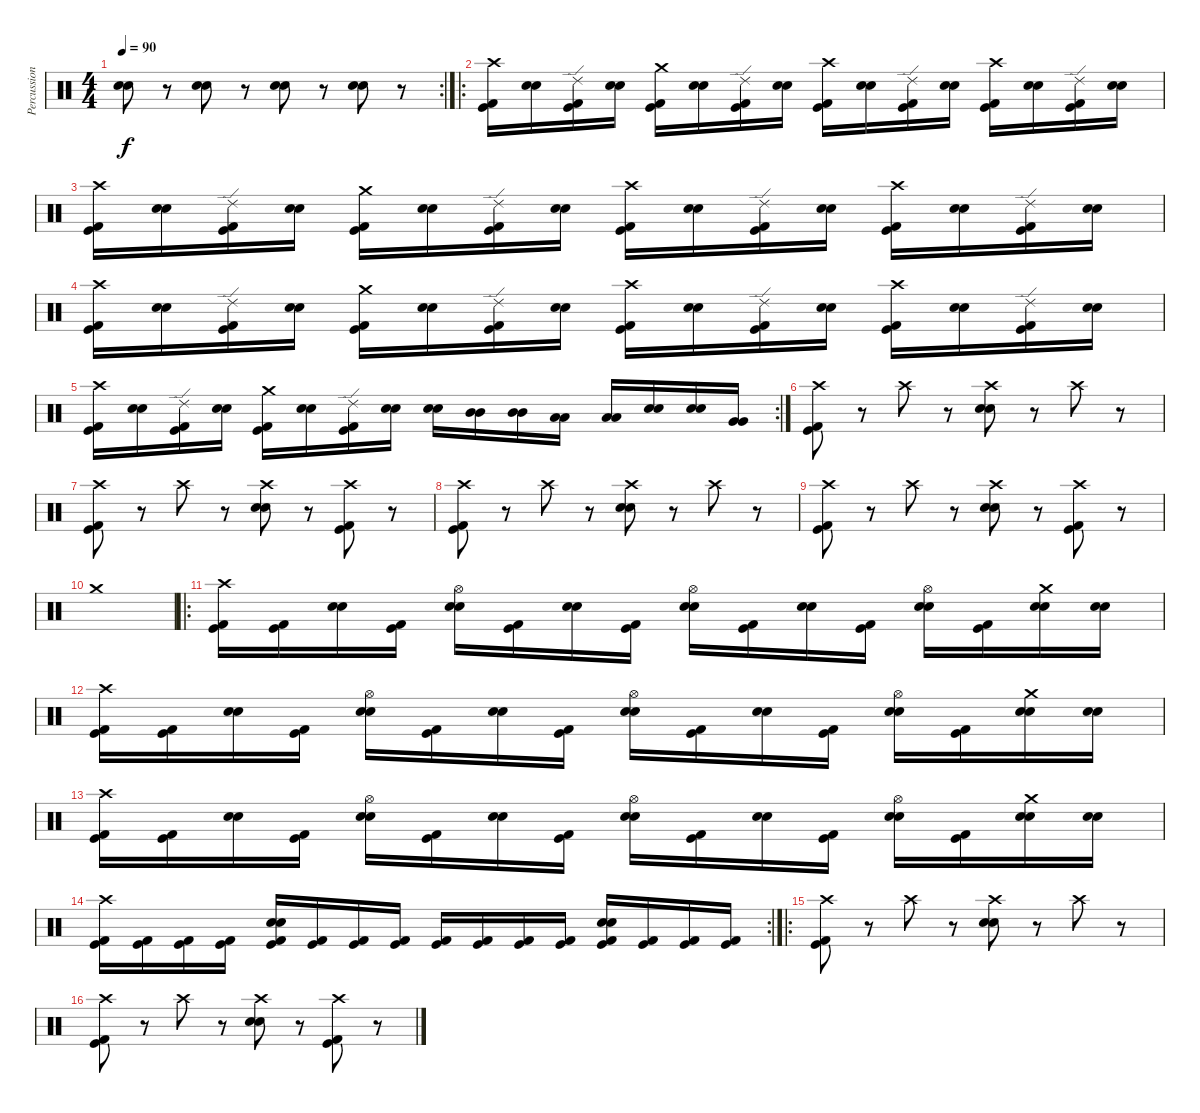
\track ("Percussion" "Percussion") {instrument percussion}
\staff {score}
\articulation defaults
\rc 2
\ts (4 4)
\tempo 90
\clef neutral
\ks c
("Electric Snare (hit)" "Snare (hit) 2").8{dy f} r.8 ("Electric Snare (hit)" "Snare (hit) 2").8 r.8 ("Electric Snare (hit)" "Snare (hit) 2").8 r.8 ("Electric Snare (hit)" "Snare (hit) 2").8 r.8 |
\ro
("Kick (hit) 2" "Kick (hit)" "Crash high (hit)").16 ("Electric Snare (hit)" "Snare (hit) 2").16 ("Kick (hit) 2" "Kick (hit)" "Ride (edge) 2").16 ("Electric Snare (hit)" "Snare (hit) 2").16 ("Kick (hit) 2" "Kick (hit)" "Crash medium (hit)").16 ("Electric Snare (hit)" "Snare (hit) 2").16 ("Kick (hit) 2" "Kick (hit)" "Ride (edge) 2").16 ("Electric Snare (hit)" "Snare (hit) 2").16 ("Kick (hit) 2" "Kick (hit)" "Crash high (hit)").16 ("Electric Snare (hit)" "Snare (hit) 2").16 ("Kick (hit) 2" "Kick (hit)" "Ride (edge) 2").16 ("Electric Snare (hit)" "Snare (hit) 2").16 ("Kick (hit) 2" "Kick (hit)" "Crash high (hit)").16 ("Electric Snare (hit)" "Snare (hit) 2").16 ("Kick (hit) 2" "Kick (hit)" "Ride (edge) 2").16 ("Electric Snare (hit)" "Snare (hit) 2").16 |
("Kick (hit) 2" "Kick (hit)" "Crash high (hit)").16 ("Electric Snare (hit)" "Snare (hit) 2").16 ("Kick (hit) 2" "Kick (hit)" "Ride (edge) 2").16 ("Electric Snare (hit)" "Snare (hit) 2").16 ("Kick (hit) 2" "Kick (hit)" "Crash medium (hit)").16 ("Electric Snare (hit)" "Snare (hit) 2").16 ("Kick (hit) 2" "Kick (hit)" "Ride (edge) 2").16 ("Electric Snare (hit)" "Snare (hit) 2").16 ("Kick (hit) 2" "Kick (hit)" "Crash high (hit)").16 ("Electric Snare (hit)" "Snare (hit) 2").16 ("Kick (hit) 2" "Kick (hit)" "Ride (edge) 2").16 ("Electric Snare (hit)" "Snare (hit) 2").16 ("Kick (hit) 2" "Kick (hit)" "Crash high (hit)").16 ("Electric Snare (hit)" "Snare (hit) 2").16 ("Kick (hit) 2" "Kick (hit)" "Ride (edge) 2").16 ("Electric Snare (hit)" "Snare (hit) 2").16 |
("Kick (hit) 2" "Kick (hit)" "Crash high (hit)").16 ("Electric Snare (hit)" "Snare (hit) 2").16 ("Kick (hit) 2" "Kick (hit)" "Ride (edge) 2").16 ("Electric Snare (hit)" "Snare (hit) 2").16 ("Kick (hit) 2" "Kick (hit)" "Crash medium (hit)").16 ("Electric Snare (hit)" "Snare (hit) 2").16 ("Kick (hit) 2" "Kick (hit)" "Ride (edge) 2").16 ("Electric Snare (hit)" "Snare (hit) 2").16 ("Kick (hit) 2" "Kick (hit)" "Crash high (hit)").16 ("Electric Snare (hit)" "Snare (hit) 2").16 ("Kick (hit) 2" "Kick (hit)" "Ride (edge) 2").16 ("Electric Snare (hit)" "Snare (hit) 2").16 ("Kick (hit) 2" "Kick (hit)" "Crash high (hit)").16 ("Electric Snare (hit)" "Snare (hit) 2").16 ("Kick (hit) 2" "Kick (hit)" "Ride (edge) 2").16 ("Electric Snare (hit)" "Snare (hit) 2").16 |
\rc 2
("Kick (hit) 2" "Kick (hit)" "Crash high (hit)").16 ("Electric Snare (hit)" "Snare (hit) 2").16 ("Kick (hit) 2" "Kick (hit)" "Ride (edge) 2").16 ("Electric Snare (hit)" "Snare (hit) 2").16 ("Kick (hit) 2" "Kick (hit)" "Crash medium (hit)").16 ("Electric Snare (hit)" "Snare (hit) 2").16 ("Kick (hit) 2" "Kick (hit)" "Ride (edge) 2").16 ("Electric Snare (hit)" "Snare (hit) 2").16 ("Electric Snare (hit)" "Snare (hit) 2").16 ("Mid Tom (hit)" "Mid Tom (hit)").16 ("Mid Tom (hit)" "Mid Tom (hit)").16 ("Low Tom (hit)" "Low Tom (hit)").16 ("Low Tom (hit)" "Low Tom (hit)").16 ("Electric Snare (hit)" "Snare (hit) 2").16 ("Electric Snare (hit)" "Snare (hit) 2").16 ("Very Low Tom (hit)" "Very Low Tom (hit)").16 |
("Kick (hit)" "Kick (hit) 2" "Crash high (hit)").8 r.8 "Crash high (hit)".8 r.8 ("Snare (hit) 2" "Electric Snare (hit)" "Crash high (hit)").8 r.8 "Crash high (hit)".8 r.8 |
("Kick (hit)" "Kick (hit) 2" "Crash high (hit)").8 r.8 "Crash high (hit)".8 r.8 ("Snare (hit) 2" "Electric Snare (hit)" "Crash high (hit)").8 r.8 ("Kick (hit) 2" "Kick (hit)" "Crash high (hit)").8 r.8 |
("Kick (hit)" "Kick (hit) 2" "Crash high (hit)").8 r.8 "Crash high (hit)".8 r.8 ("Snare (hit) 2" "Electric Snare (hit)" "Crash high (hit)").8 r.8 "Crash high (hit)".8 r.8 |
("Kick (hit)" "Kick (hit) 2" "Crash high (hit)").8 r.8 "Crash high (hit)".8 r.8 ("Snare (hit) 2" "Electric Snare (hit)" "Crash high (hit)").8 r.8 ("Kick (hit) 2" "Kick (hit)" "Crash high (hit)").8 r.8 |
"Crash medium (hit)".1 |
\ro
("Kick (hit) 2" "Kick (hit)" "Crash high (hit)").16 ("Kick (hit) 2" "Kick (hit)").16 ("Electric Snare (hit)" "Snare (hit) 2").16 ("Kick (hit) 2" "Kick (hit)").16 ("Electric Snare (hit)" "Snare (hit) 2" "Hi-Hat (open)").16 ("Kick (hit) 2" "Kick (hit)").16 ("Electric Snare (hit)" "Snare (hit) 2").16 ("Kick (hit) 2" "Kick (hit)").16 ("Electric Snare (hit)" "Snare (hit) 2" "Hi-Hat (open)").16 ("Kick (hit) 2" "Kick (hit)").16 ("Electric Snare (hit)" "Snare (hit) 2").16 ("Kick (hit) 2" "Kick (hit)").16 ("Electric Snare (hit)" "Snare (hit) 2" "Hi-Hat (open)").16 ("Kick (hit) 2" "Kick (hit)").16 ("Electric Snare (hit)" "Snare (hit) 2" "Crash medium (hit)").16 ("Electric Snare (hit)" "Snare (hit) 2").16 |
("Kick (hit) 2" "Kick (hit)" "Crash high (hit)").16 ("Kick (hit) 2" "Kick (hit)").16 ("Electric Snare (hit)" "Snare (hit) 2").16 ("Kick (hit) 2" "Kick (hit)").16 ("Electric Snare (hit)" "Snare (hit) 2" "Hi-Hat (open)").16 ("Kick (hit) 2" "Kick (hit)").16 ("Electric Snare (hit)" "Snare (hit) 2").16 ("Kick (hit) 2" "Kick (hit)").16 ("Electric Snare (hit)" "Snare (hit) 2" "Hi-Hat (open)").16 ("Kick (hit) 2" "Kick (hit)").16 ("Electric Snare (hit)" "Snare (hit) 2").16 ("Kick (hit) 2" "Kick (hit)").16 ("Electric Snare (hit)" "Snare (hit) 2" "Hi-Hat (open)").16 ("Kick (hit) 2" "Kick (hit)").16 ("Electric Snare (hit)" "Snare (hit) 2" "Crash medium (hit)").16 ("Electric Snare (hit)" "Snare (hit) 2").16 |
("Kick (hit) 2" "Kick (hit)" "Crash high (hit)").16 ("Kick (hit) 2" "Kick (hit)").16 ("Electric Snare (hit)" "Snare (hit) 2").16 ("Kick (hit) 2" "Kick (hit)").16 ("Electric Snare (hit)" "Snare (hit) 2" "Hi-Hat (open)").16 ("Kick (hit) 2" "Kick (hit)").16 ("Electric Snare (hit)" "Snare (hit) 2").16 ("Kick (hit) 2" "Kick (hit)").16 ("Electric Snare (hit)" "Snare (hit) 2" "Hi-Hat (open)").16 ("Kick (hit) 2" "Kick (hit)").16 ("Electric Snare (hit)" "Snare (hit) 2").16 ("Kick (hit) 2" "Kick (hit)").16 ("Electric Snare (hit)" "Snare (hit) 2" "Hi-Hat (open)").16 ("Kick (hit) 2" "Kick (hit)").16 ("Electric Snare (hit)" "Snare (hit) 2" "Crash medium (hit)").16 ("Electric Snare (hit)" "Snare (hit) 2").16 |
\rc 2
("Kick (hit) 2" "Kick (hit)" "Crash high (hit)").16 ("Kick (hit) 2" "Kick (hit)").16 ("Kick (hit) 2" "Kick (hit)").16 ("Kick (hit) 2" "Kick (hit)").16 ("Kick (hit) 2" "Kick (hit)" "Electric Snare (hit)" "Snare (hit) 2").16 ("Kick (hit) 2" "Kick (hit)").16 ("Kick (hit) 2" "Kick (hit)").16 ("Kick (hit) 2" "Kick (hit)").16 ("Kick (hit) 2" "Kick (hit)").16 ("Kick (hit) 2" "Kick (hit)").16 ("Kick (hit) 2" "Kick (hit)").16 ("Kick (hit) 2" "Kick (hit)").16 ("Kick (hit) 2" "Kick (hit)" "Electric Snare (hit)" "Snare (hit) 2").16 ("Kick (hit) 2" "Kick (hit)").16 ("Kick (hit) 2" "Kick (hit)").16 ("Kick (hit) 2" "Kick (hit)").16 |
\ro
("Kick (hit)" "Kick (hit) 2" "Crash high (hit)").8 r.8 "Crash high (hit)".8 r.8 ("Snare (hit) 2" "Electric Snare (hit)" "Crash high (hit)").8 r.8 "Crash high (hit)".8 r.8 |
("Kick (hit)" "Kick (hit) 2" "Crash high (hit)").8 r.8 "Crash high (hit)".8 r.8 ("Snare (hit) 2" "Electric Snare (hit)" "Crash high (hit)").8 r.8 ("Kick (hit) 2" "Kick (hit)" "Crash high (hit)").8 r.8
